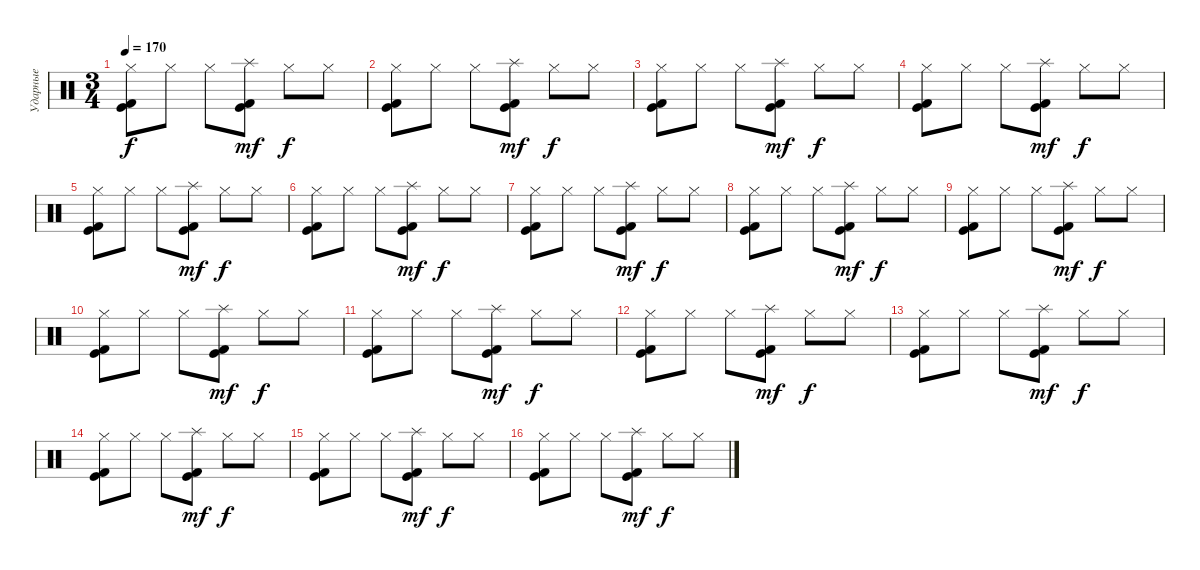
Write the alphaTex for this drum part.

\track ("Ударные" "Ударные") {instrument percussion}
\staff {score}
\articulation defaults
\ts (3 4)
\tempo 170
\clef neutral
\ks c
("Hi-Hat (closed)" "Kick (hit)" "Kick (hit) 2").8{dy f} "Hi-Hat (closed)".8 "Hi-Hat (closed)".8 ("Splash (hit)" "Kick (hit)" "Kick (hit) 2").8{dy mf} "Hi-Hat (closed)".8{dy f} "Hi-Hat (closed)".8 |
("Hi-Hat (closed)" "Kick (hit)" "Kick (hit) 2").8 "Hi-Hat (closed)".8 "Hi-Hat (closed)".8 ("Splash (hit)" "Kick (hit)" "Kick (hit) 2").8{dy mf} "Hi-Hat (closed)".8{dy f} "Hi-Hat (closed)".8 |
("Hi-Hat (closed)" "Kick (hit)" "Kick (hit) 2").8 "Hi-Hat (closed)".8 "Hi-Hat (closed)".8 ("Splash (hit)" "Kick (hit)" "Kick (hit) 2").8{dy mf} "Hi-Hat (closed)".8{dy f} "Hi-Hat (closed)".8 |
("Hi-Hat (closed)" "Kick (hit)" "Kick (hit) 2").8 "Hi-Hat (closed)".8 "Hi-Hat (closed)".8 ("Splash (hit)" "Kick (hit)" "Kick (hit) 2").8{dy mf} "Hi-Hat (closed)".8{dy f} "Hi-Hat (closed)".8 |
("Hi-Hat (closed)" "Kick (hit)" "Kick (hit) 2").8 "Hi-Hat (closed)".8 "Hi-Hat (closed)".8 ("Splash (hit)" "Kick (hit)" "Kick (hit) 2").8{dy mf} "Hi-Hat (closed)".8{dy f} "Hi-Hat (closed)".8 |
("Hi-Hat (closed)" "Kick (hit)" "Kick (hit) 2").8 "Hi-Hat (closed)".8 "Hi-Hat (closed)".8 ("Splash (hit)" "Kick (hit)" "Kick (hit) 2").8{dy mf} "Hi-Hat (closed)".8{dy f} "Hi-Hat (closed)".8 |
("Hi-Hat (closed)" "Kick (hit)" "Kick (hit) 2").8 "Hi-Hat (closed)".8 "Hi-Hat (closed)".8 ("Splash (hit)" "Kick (hit)" "Kick (hit) 2").8{dy mf} "Hi-Hat (closed)".8{dy f} "Hi-Hat (closed)".8 |
("Hi-Hat (closed)" "Kick (hit)" "Kick (hit) 2").8 "Hi-Hat (closed)".8 "Hi-Hat (closed)".8 ("Splash (hit)" "Kick (hit)" "Kick (hit) 2").8{dy mf} "Hi-Hat (closed)".8{dy f} "Hi-Hat (closed)".8 |
("Hi-Hat (closed)" "Kick (hit)" "Kick (hit) 2").8 "Hi-Hat (closed)".8 "Hi-Hat (closed)".8 ("Splash (hit)" "Kick (hit)" "Kick (hit) 2").8{dy mf} "Hi-Hat (closed)".8{dy f} "Hi-Hat (closed)".8 |
("Hi-Hat (closed)" "Kick (hit)" "Kick (hit) 2").8 "Hi-Hat (closed)".8 "Hi-Hat (closed)".8 ("Splash (hit)" "Kick (hit)" "Kick (hit) 2").8{dy mf} "Hi-Hat (closed)".8{dy f} "Hi-Hat (closed)".8 |
("Hi-Hat (closed)" "Kick (hit)" "Kick (hit) 2").8 "Hi-Hat (closed)".8 "Hi-Hat (closed)".8 ("Splash (hit)" "Kick (hit)" "Kick (hit) 2").8{dy mf} "Hi-Hat (closed)".8{dy f} "Hi-Hat (closed)".8 |
("Hi-Hat (closed)" "Kick (hit)" "Kick (hit) 2").8 "Hi-Hat (closed)".8 "Hi-Hat (closed)".8 ("Splash (hit)" "Kick (hit)" "Kick (hit) 2").8{dy mf} "Hi-Hat (closed)".8{dy f} "Hi-Hat (closed)".8 |
("Hi-Hat (closed)" "Kick (hit)" "Kick (hit) 2").8 "Hi-Hat (closed)".8 "Hi-Hat (closed)".8 ("Splash (hit)" "Kick (hit)" "Kick (hit) 2").8{dy mf} "Hi-Hat (closed)".8{dy f} "Hi-Hat (closed)".8 |
("Hi-Hat (closed)" "Kick (hit)" "Kick (hit) 2").8 "Hi-Hat (closed)".8 "Hi-Hat (closed)".8 ("Splash (hit)" "Kick (hit)" "Kick (hit) 2").8{dy mf} "Hi-Hat (closed)".8{dy f} "Hi-Hat (closed)".8 |
("Hi-Hat (closed)" "Kick (hit)" "Kick (hit) 2").8 "Hi-Hat (closed)".8 "Hi-Hat (closed)".8 ("Splash (hit)" "Kick (hit)" "Kick (hit) 2").8{dy mf} "Hi-Hat (closed)".8{dy f} "Hi-Hat (closed)".8 |
("Hi-Hat (closed)" "Kick (hit)" "Kick (hit) 2").8 "Hi-Hat (closed)".8 "Hi-Hat (closed)".8 ("Splash (hit)" "Kick (hit)" "Kick (hit) 2").8{dy mf} "Hi-Hat (closed)".8{dy f} "Hi-Hat (closed)".8
